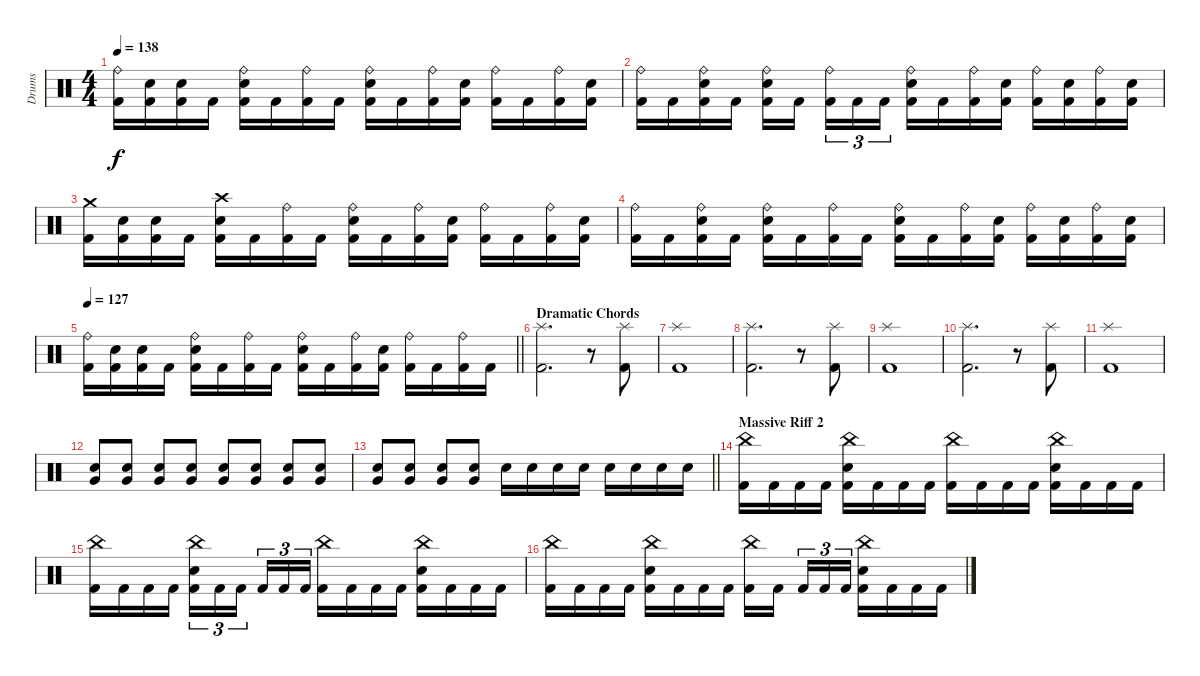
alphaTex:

\track ("Drums" "Drums") {instrument percussion}
\staff {score}
\articulation defaults
\ts (4 4)
\tempo 138
\clef neutral
\ks c
("Ride (bell)" "Kick (hit) 2").16{dy f} ("Snare (hit) 2" "Kick (hit) 2").16 ("Snare (hit) 2" "Kick (hit) 2").16 "Kick (hit) 2".16 ("Ride (bell)" "Snare (hit) 2" "Kick (hit) 2").16 "Kick (hit) 2".16 ("Ride (bell)" "Kick (hit) 2").16 "Kick (hit) 2".16 ("Ride (bell)" "Snare (hit) 2" "Kick (hit) 2").16 "Kick (hit) 2".16 ("Ride (bell)" "Kick (hit) 2").16 ("Snare (hit) 2" "Kick (hit) 2").16 ("Ride (bell)" "Kick (hit) 2").16 "Kick (hit) 2".16 ("Ride (bell)" "Kick (hit) 2").16 ("Snare (hit) 2" "Kick (hit) 2").16 |
("Ride (bell)" "Kick (hit) 2").16 "Kick (hit) 2".16 ("Ride (bell)" "Snare (hit) 2" "Kick (hit) 2").16 "Kick (hit) 2".16 ("Ride (bell)" "Snare (hit) 2" "Kick (hit) 2").16 "Kick (hit) 2".16{beam splitsecondary} ("Ride (bell)" "Kick (hit) 2").16{tu (3 2)} "Kick (hit) 2".16{tu (3 2)} "Kick (hit) 2".16{tu (3 2)} ("Ride (bell)" "Snare (hit) 2" "Kick (hit) 2").16 "Kick (hit) 2".16 ("Ride (bell)" "Kick (hit) 2").16 ("Snare (hit) 2" "Kick (hit) 2").16 ("Ride (bell)" "Kick (hit) 2").16 ("Snare (hit) 2" "Kick (hit) 2").16 ("Ride (bell)" "Kick (hit) 2").16 ("Snare (hit) 2" "Kick (hit) 2").16 |
("Crash medium (hit)" "Kick (hit) 2").16 ("Snare (hit) 2" "Kick (hit) 2").16 ("Snare (hit) 2" "Kick (hit) 2").16 "Kick (hit) 2".16 ("Crash high (hit)" "Snare (hit) 2" "Kick (hit) 2").16 "Kick (hit) 2".16 ("Ride (bell)" "Kick (hit) 2").16 "Kick (hit) 2".16 ("Ride (bell)" "Snare (hit) 2" "Kick (hit) 2").16 "Kick (hit) 2".16 ("Ride (bell)" "Kick (hit) 2").16 ("Snare (hit) 2" "Kick (hit) 2").16 ("Ride (bell)" "Kick (hit) 2").16 "Kick (hit) 2".16 ("Ride (bell)" "Kick (hit) 2").16 ("Snare (hit) 2" "Kick (hit) 2").16 |
("Ride (bell)" "Kick (hit) 2").16 "Kick (hit) 2".16 ("Ride (bell)" "Snare (hit) 2" "Kick (hit) 2").16 "Kick (hit) 2".16 ("Ride (bell)" "Snare (hit) 2" "Kick (hit) 2").16 "Kick (hit) 2".16 ("Ride (bell)" "Kick (hit) 2").16 "Kick (hit) 2".16 ("Ride (bell)" "Snare (hit) 2" "Kick (hit) 2").16 "Kick (hit) 2".16 ("Ride (bell)" "Kick (hit) 2").16 ("Snare (hit) 2" "Kick (hit) 2").16 ("Ride (bell)" "Kick (hit) 2").16 ("Snare (hit) 2" "Kick (hit) 2").16 ("Ride (bell)" "Kick (hit) 2").16 ("Snare (hit) 2" "Kick (hit) 2").16 |
\tempo 127
\barLineRight lightlight
("Ride (bell)" "Kick (hit) 2").16 ("Snare (hit) 2" "Kick (hit) 2").16 ("Snare (hit) 2" "Kick (hit) 2").16 "Kick (hit) 2".16 ("Ride (bell)" "Snare (hit) 2" "Kick (hit) 2").16 "Kick (hit) 2".16 ("Ride (bell)" "Kick (hit) 2").16 "Kick (hit) 2".16 ("Ride (bell)" "Snare (hit) 2" "Kick (hit) 2").16 "Kick (hit) 2".16 ("Ride (bell)" "Kick (hit) 2").16 ("Snare (hit) 2" "Kick (hit) 2").16 ("Ride (bell)" "Kick (hit) 2").16 "Kick (hit) 2".16 ("Ride (bell)" "Kick (hit) 2").16 "Kick (hit) 2".16 |
\section ("" "Dramatic Chords")
("Splash (hit)" "Kick (hit) 2").2{d} r.8 ("Splash (hit)" "Kick (hit) 2").8 |
("Splash (hit)" "Kick (hit) 2").1 |
("Splash (hit)" "Kick (hit) 2").2{d} r.8 ("Splash (hit)" "Kick (hit) 2").8 |
("Splash (hit)" "Kick (hit) 2").1 |
("Splash (hit)" "Kick (hit) 2").2{d} r.8 ("Splash (hit)" "Kick (hit) 2").8 |
("Splash (hit)" "Kick (hit) 2").1 |
("Very Low Tom (hit)" "Snare (hit) 2").8 ("Very Low Tom (hit)" "Snare (hit) 2").8 ("Very Low Tom (hit)" "Snare (hit) 2").8 ("Very Low Tom (hit)" "Snare (hit) 2").8 ("Very Low Tom (hit)" "Snare (hit) 2").8 ("Very Low Tom (hit)" "Snare (hit) 2").8 ("Very Low Tom (hit)" "Snare (hit) 2").8 ("Very Low Tom (hit)" "Snare (hit) 2").8 |
\barLineRight lightlight
("Very Low Tom (hit)" "Snare (hit) 2").8 ("Very Low Tom (hit)" "Snare (hit) 2").8 ("Very Low Tom (hit)" "Snare (hit) 2").8 ("Very Low Tom (hit)" "Snare (hit) 2").8 "Snare (hit) 2".16 "Snare (hit) 2".16 "Snare (hit) 2".16 "Snare (hit) 2".16 "Snare (hit) 2".16 "Snare (hit) 2".16 "Snare (hit) 2".16 "Snare (hit) 2".16 |
\section ("" "Massive Riff 2")
("China (hit)" "Kick (hit) 2").16 "Kick (hit) 2".16 "Kick (hit) 2".16 "Kick (hit) 2".16 ("China (hit)" "Snare (hit) 2" "Kick (hit) 2").16 "Kick (hit) 2".16 "Kick (hit) 2".16 "Kick (hit) 2".16 ("China (hit)" "Kick (hit) 2").16 "Kick (hit) 2".16 "Kick (hit) 2".16 "Kick (hit) 2".16 ("China (hit)" "Snare (hit) 2" "Kick (hit) 2").16 "Kick (hit) 2".16 "Kick (hit) 2".16 "Kick (hit) 2".16 |
("China (hit)" "Kick (hit) 2").16 "Kick (hit) 2".16 "Kick (hit) 2".16 "Kick (hit) 2".16 ("China (hit)" "Snare (hit) 2" "Kick (hit) 2").16{tu (3 2)} "Kick (hit) 2".16{tu (3 2)} "Kick (hit) 2".16{tu (3 2) beam splitsecondary} "Kick (hit) 2".16{tu (3 2)} "Kick (hit) 2".16{tu (3 2)} "Kick (hit) 2".16{tu (3 2)} ("China (hit)" "Kick (hit) 2").16 "Kick (hit) 2".16 "Kick (hit) 2".16 "Kick (hit) 2".16 ("China (hit)" "Snare (hit) 2" "Kick (hit) 2").16 "Kick (hit) 2".16 "Kick (hit) 2".16 "Kick (hit) 2".16 |
("China (hit)" "Kick (hit) 2").16 "Kick (hit) 2".16 "Kick (hit) 2".16 "Kick (hit) 2".16 ("China (hit)" "Snare (hit) 2" "Kick (hit) 2").16 "Kick (hit) 2".16 "Kick (hit) 2".16 "Kick (hit) 2".16 ("China (hit)" "Kick (hit) 2").16 "Kick (hit) 2".16{beam splitsecondary} "Kick (hit) 2".16{tu (3 2)} "Kick (hit) 2".16{tu (3 2)} "Kick (hit) 2".16{tu (3 2)} ("China (hit)" "Snare (hit) 2" "Kick (hit) 2").16 "Kick (hit) 2".16 "Kick (hit) 2".16 "Kick (hit) 2".16
